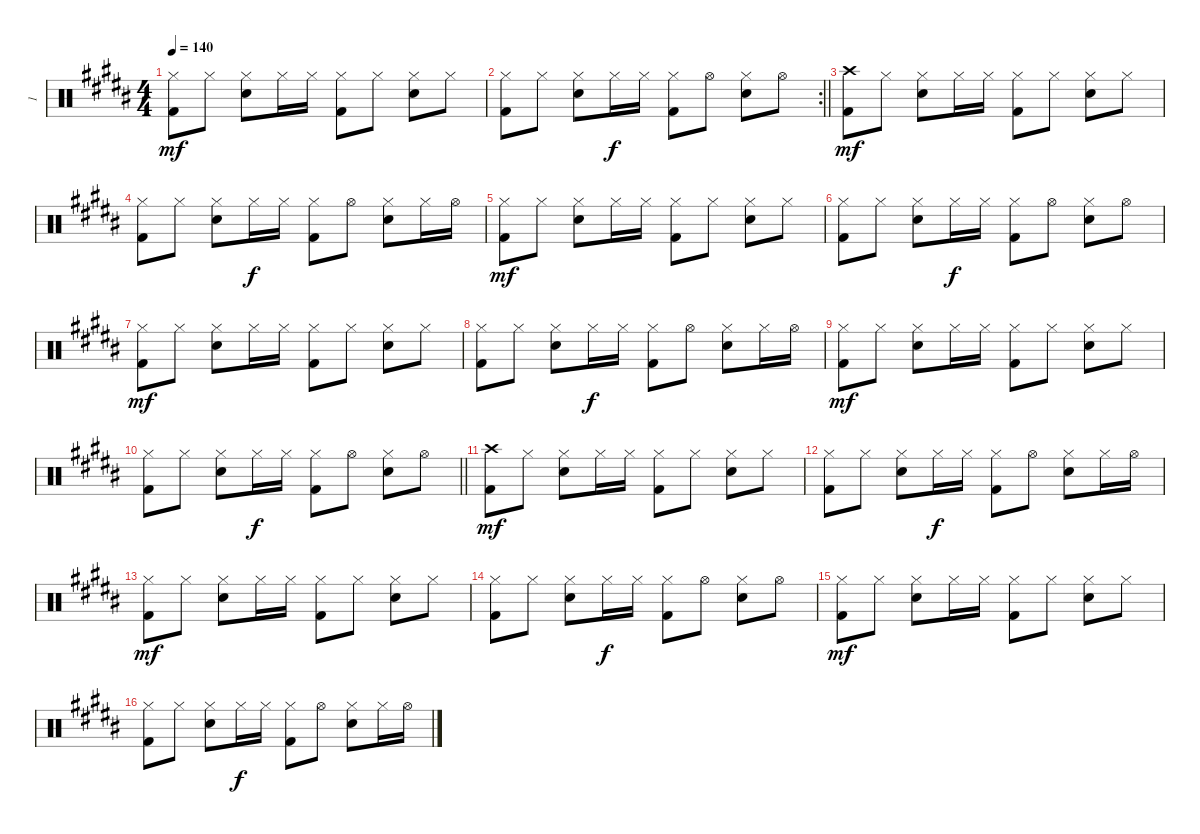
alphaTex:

\track ("1" "1") {instrument percussion}
\staff {score}
\articulation defaults
\ts (4 4)
\tempo 140
\clef neutral
\ks b
("Hi-Hat (closed)" "Kick (hit) 2").8{dy mf} "Hi-Hat (closed)".8 ("Hi-Hat (closed)" "Snare (hit) 2").8 "Hi-Hat (closed)".16 "Hi-Hat (closed)".16 ("Hi-Hat (closed)" "Kick (hit) 2").8 "Hi-Hat (closed)".8 ("Hi-Hat (closed)" "Snare (hit) 2").8 "Hi-Hat (closed)".8 |
\rc 2
\barLineRight lightlight
("Hi-Hat (closed)" "Kick (hit) 2").8 "Hi-Hat (closed)".8 ("Hi-Hat (closed)" "Snare (hit) 2").8 "Hi-Hat (closed)".16{dy f} "Hi-Hat (closed)".16 ("Hi-Hat (closed)" "Kick (hit) 2").8 "Hi-Hat (open)".8 ("Hi-Hat (closed)" "Snare (hit) 2").8 "Hi-Hat (open)".8 |
("Crash high (hit)" "Kick (hit) 2").8{dy mf} "Hi-Hat (closed)".8 ("Hi-Hat (closed)" "Snare (hit) 2").8 "Hi-Hat (closed)".16 "Hi-Hat (closed)".16 ("Hi-Hat (closed)" "Kick (hit) 2").8 "Hi-Hat (closed)".8 ("Hi-Hat (closed)" "Snare (hit) 2").8 "Hi-Hat (closed)".8 |
("Hi-Hat (closed)" "Kick (hit) 2").8 "Hi-Hat (closed)".8 ("Hi-Hat (closed)" "Snare (hit) 2").8 "Hi-Hat (closed)".16{dy f} "Hi-Hat (closed)".16 ("Hi-Hat (closed)" "Kick (hit) 2").8 "Hi-Hat (open)".8 ("Hi-Hat (closed)" "Snare (hit) 2").8 "Hi-Hat (closed)".16 "Hi-Hat (open)".16 |
("Hi-Hat (closed)" "Kick (hit) 2").8{dy mf} "Hi-Hat (closed)".8 ("Hi-Hat (closed)" "Snare (hit) 2").8 "Hi-Hat (closed)".16 "Hi-Hat (closed)".16 ("Hi-Hat (closed)" "Kick (hit) 2").8 "Hi-Hat (closed)".8 ("Hi-Hat (closed)" "Snare (hit) 2").8 "Hi-Hat (closed)".8 |
("Hi-Hat (closed)" "Kick (hit) 2").8 "Hi-Hat (closed)".8 ("Hi-Hat (closed)" "Snare (hit) 2").8 "Hi-Hat (closed)".16{dy f} "Hi-Hat (closed)".16 ("Hi-Hat (closed)" "Kick (hit) 2").8 "Hi-Hat (open)".8 ("Hi-Hat (closed)" "Snare (hit) 2").8 "Hi-Hat (open)".8 |
("Hi-Hat (closed)" "Kick (hit) 2").8{dy mf} "Hi-Hat (closed)".8 ("Hi-Hat (closed)" "Snare (hit) 2").8 "Hi-Hat (closed)".16 "Hi-Hat (closed)".16 ("Hi-Hat (closed)" "Kick (hit) 2").8 "Hi-Hat (closed)".8 ("Hi-Hat (closed)" "Snare (hit) 2").8 "Hi-Hat (closed)".8 |
("Hi-Hat (closed)" "Kick (hit) 2").8 "Hi-Hat (closed)".8 ("Hi-Hat (closed)" "Snare (hit) 2").8 "Hi-Hat (closed)".16{dy f} "Hi-Hat (closed)".16 ("Hi-Hat (closed)" "Kick (hit) 2").8 "Hi-Hat (open)".8 ("Hi-Hat (closed)" "Snare (hit) 2").8 "Hi-Hat (closed)".16 "Hi-Hat (open)".16 |
("Hi-Hat (closed)" "Kick (hit) 2").8{dy mf} "Hi-Hat (closed)".8 ("Hi-Hat (closed)" "Snare (hit) 2").8 "Hi-Hat (closed)".16 "Hi-Hat (closed)".16 ("Hi-Hat (closed)" "Kick (hit) 2").8 "Hi-Hat (closed)".8 ("Hi-Hat (closed)" "Snare (hit) 2").8 "Hi-Hat (closed)".8 |
\barLineRight lightlight
("Hi-Hat (closed)" "Kick (hit) 2").8 "Hi-Hat (closed)".8 ("Hi-Hat (closed)" "Snare (hit) 2").8 "Hi-Hat (closed)".16{dy f} "Hi-Hat (closed)".16 ("Hi-Hat (closed)" "Kick (hit) 2").8 "Hi-Hat (open)".8 ("Hi-Hat (closed)" "Snare (hit) 2").8 "Hi-Hat (open)".8 |
("Crash high (hit)" "Kick (hit) 2").8{dy mf} "Hi-Hat (closed)".8 ("Hi-Hat (closed)" "Snare (hit) 2").8 "Hi-Hat (closed)".16 "Hi-Hat (closed)".16 ("Hi-Hat (closed)" "Kick (hit) 2").8 "Hi-Hat (closed)".8 ("Hi-Hat (closed)" "Snare (hit) 2").8 "Hi-Hat (closed)".8 |
("Hi-Hat (closed)" "Kick (hit) 2").8 "Hi-Hat (closed)".8 ("Hi-Hat (closed)" "Snare (hit) 2").8 "Hi-Hat (closed)".16{dy f} "Hi-Hat (closed)".16 ("Hi-Hat (closed)" "Kick (hit) 2").8 "Hi-Hat (open)".8 ("Hi-Hat (closed)" "Snare (hit) 2").8 "Hi-Hat (closed)".16 "Hi-Hat (open)".16 |
("Hi-Hat (closed)" "Kick (hit) 2").8{dy mf} "Hi-Hat (closed)".8 ("Hi-Hat (closed)" "Snare (hit) 2").8 "Hi-Hat (closed)".16 "Hi-Hat (closed)".16 ("Hi-Hat (closed)" "Kick (hit) 2").8 "Hi-Hat (closed)".8 ("Hi-Hat (closed)" "Snare (hit) 2").8 "Hi-Hat (closed)".8 |
("Hi-Hat (closed)" "Kick (hit) 2").8 "Hi-Hat (closed)".8 ("Hi-Hat (closed)" "Snare (hit) 2").8 "Hi-Hat (closed)".16{dy f} "Hi-Hat (closed)".16 ("Hi-Hat (closed)" "Kick (hit) 2").8 "Hi-Hat (open)".8 ("Hi-Hat (closed)" "Snare (hit) 2").8 "Hi-Hat (open)".8 |
("Hi-Hat (closed)" "Kick (hit) 2").8{dy mf} "Hi-Hat (closed)".8 ("Hi-Hat (closed)" "Snare (hit) 2").8 "Hi-Hat (closed)".16 "Hi-Hat (closed)".16 ("Hi-Hat (closed)" "Kick (hit) 2").8 "Hi-Hat (closed)".8 ("Hi-Hat (closed)" "Snare (hit) 2").8 "Hi-Hat (closed)".8 |
("Hi-Hat (closed)" "Kick (hit) 2").8 "Hi-Hat (closed)".8 ("Hi-Hat (closed)" "Snare (hit) 2").8 "Hi-Hat (closed)".16{dy f} "Hi-Hat (closed)".16 ("Hi-Hat (closed)" "Kick (hit) 2").8 "Hi-Hat (open)".8 ("Hi-Hat (closed)" "Snare (hit) 2").8 "Hi-Hat (closed)".16 "Hi-Hat (open)".16
